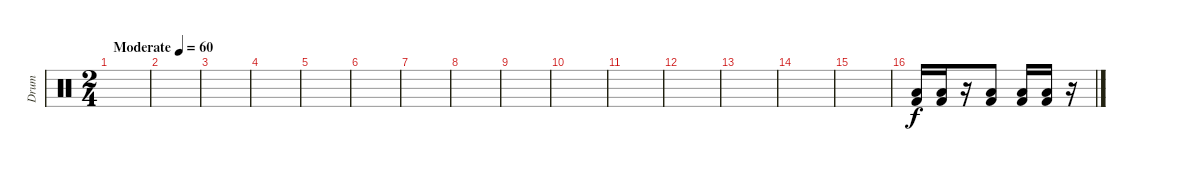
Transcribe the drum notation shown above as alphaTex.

\track ("Drum" "Drum") {instrument percussion}
\staff {score}
\articulation defaults
\ts (2 4)
\tempo (60 "Moderate")
\clef neutral
\ks c
|
|
|
|
|
|
|
|
|
|
|
|
|
|
|
("Low Tom (hit)" "Kick (hit) 2").16 ("Low Tom (hit)" "Kick (hit) 2").16 r.16 ("Low Tom (hit)" "Kick (hit) 2").8 ("Low Tom (hit)" "Kick (hit) 2").16 ("Low Tom (hit)" "Kick (hit) 2").16 r.16
